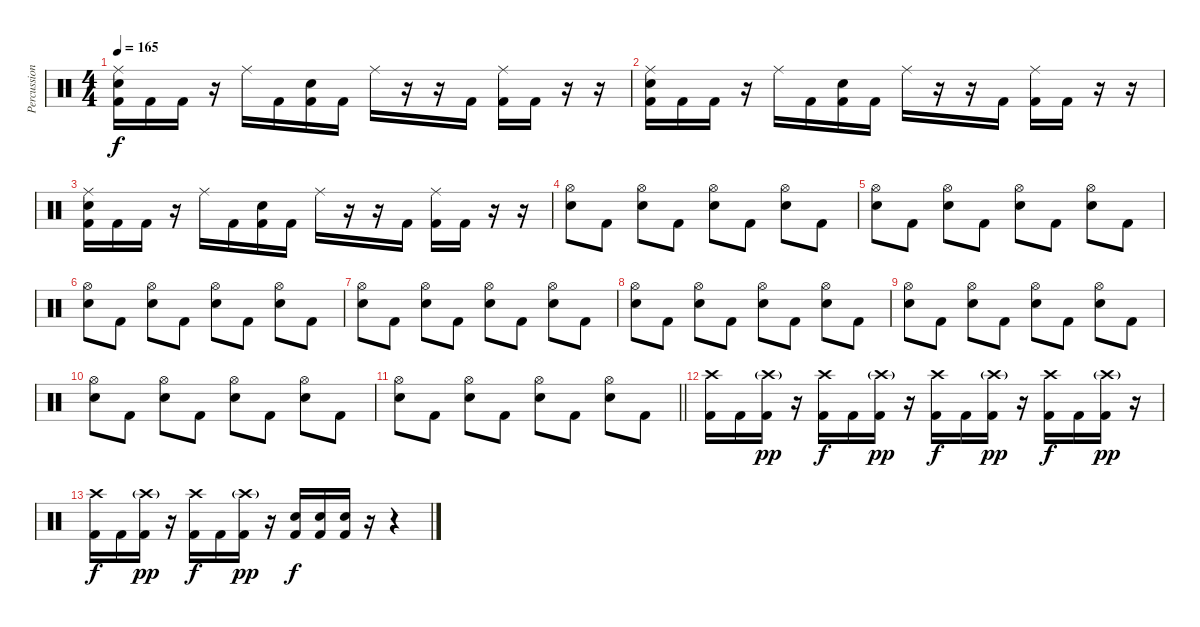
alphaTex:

\track ("Percussion" "Percussion") {instrument percussion}
\staff {score}
\articulation defaults
\ts (4 4)
\tempo 165
\clef neutral
\ks c
("Ride (middle)" "Electric Snare (hit)" "Kick (hit) 2").16{dy f} "Kick (hit) 2".16 "Kick (hit) 2".16 r.16 "Ride (middle)".16 "Kick (hit) 2".16 ("Electric Snare (hit)" "Kick (hit) 2").16 "Kick (hit) 2".16 "Ride (middle)".16 r.16 r.16 "Kick (hit) 2".16 ("Ride (middle)" "Kick (hit) 2").16 "Kick (hit) 2".16 r.16 r.16 |
("Ride (middle)" "Electric Snare (hit)" "Kick (hit) 2").16 "Kick (hit) 2".16 "Kick (hit) 2".16 r.16 "Ride (middle)".16 "Kick (hit) 2".16 ("Electric Snare (hit)" "Kick (hit) 2").16 "Kick (hit) 2".16 "Ride (middle)".16 r.16 r.16 "Kick (hit) 2".16 ("Ride (middle)" "Kick (hit) 2").16 "Kick (hit) 2".16 r.16 r.16 |
("Ride (middle)" "Electric Snare (hit)" "Kick (hit) 2").16 "Kick (hit) 2".16 "Kick (hit) 2".16 r.16 "Ride (middle)".16 "Kick (hit) 2".16 ("Electric Snare (hit)" "Kick (hit) 2").16 "Kick (hit) 2".16 "Ride (middle)".16 r.16 r.16 "Kick (hit) 2".16 ("Ride (middle)" "Kick (hit) 2").16 "Kick (hit) 2".16 r.16 r.16 |
("Hi-Hat (open)" "Electric Snare (hit)").8 "Kick (hit) 2".8 ("Hi-Hat (open)" "Electric Snare (hit)").8 "Kick (hit) 2".8 ("Hi-Hat (open)" "Electric Snare (hit)").8 "Kick (hit) 2".8 ("Hi-Hat (open)" "Electric Snare (hit)").8 "Kick (hit) 2".8 |
("Hi-Hat (open)" "Electric Snare (hit)").8 "Kick (hit) 2".8 ("Hi-Hat (open)" "Electric Snare (hit)").8 "Kick (hit) 2".8 ("Hi-Hat (open)" "Electric Snare (hit)").8 "Kick (hit) 2".8 ("Hi-Hat (open)" "Electric Snare (hit)").8 "Kick (hit) 2".8 |
("Hi-Hat (open)" "Electric Snare (hit)").8 "Kick (hit) 2".8 ("Hi-Hat (open)" "Electric Snare (hit)").8 "Kick (hit) 2".8 ("Hi-Hat (open)" "Electric Snare (hit)").8 "Kick (hit) 2".8 ("Hi-Hat (open)" "Electric Snare (hit)").8 "Kick (hit) 2".8 |
("Hi-Hat (open)" "Electric Snare (hit)").8 "Kick (hit) 2".8 ("Hi-Hat (open)" "Electric Snare (hit)").8 "Kick (hit) 2".8 ("Hi-Hat (open)" "Electric Snare (hit)").8 "Kick (hit) 2".8 ("Hi-Hat (open)" "Electric Snare (hit)").8 "Kick (hit) 2".8 |
("Hi-Hat (open)" "Electric Snare (hit)").8 "Kick (hit) 2".8 ("Hi-Hat (open)" "Electric Snare (hit)").8 "Kick (hit) 2".8 ("Hi-Hat (open)" "Electric Snare (hit)").8 "Kick (hit) 2".8 ("Hi-Hat (open)" "Electric Snare (hit)").8 "Kick (hit) 2".8 |
("Hi-Hat (open)" "Electric Snare (hit)").8 "Kick (hit) 2".8 ("Hi-Hat (open)" "Electric Snare (hit)").8 "Kick (hit) 2".8 ("Hi-Hat (open)" "Electric Snare (hit)").8 "Kick (hit) 2".8 ("Hi-Hat (open)" "Electric Snare (hit)").8 "Kick (hit) 2".8 |
("Hi-Hat (open)" "Electric Snare (hit)").8 "Kick (hit) 2".8 ("Hi-Hat (open)" "Electric Snare (hit)").8 "Kick (hit) 2".8 ("Hi-Hat (open)" "Electric Snare (hit)").8 "Kick (hit) 2".8 ("Hi-Hat (open)" "Electric Snare (hit)").8 "Kick (hit) 2".8 |
\barLineRight lightlight
("Hi-Hat (open)" "Electric Snare (hit)").8 "Kick (hit) 2".8 ("Hi-Hat (open)" "Electric Snare (hit)").8 "Kick (hit) 2".8 ("Hi-Hat (open)" "Electric Snare (hit)").8 "Kick (hit) 2".8 ("Hi-Hat (open)" "Electric Snare (hit)").8 "Kick (hit) 2".8 |
("Crash high (hit)" "Kick (hit) 2").16 "Kick (hit) 2".16 ("Crash high (hit)"{g} "Kick (hit) 2").16{dy pp} r.16 ("Crash high (hit)" "Kick (hit) 2").16{dy f} "Kick (hit) 2".16 ("Crash high (hit)"{g} "Kick (hit) 2").16{dy pp} r.16 ("Crash high (hit)" "Kick (hit) 2").16{dy f} "Kick (hit) 2".16 ("Crash high (hit)"{g} "Kick (hit) 2").16{dy pp} r.16 ("Crash high (hit)" "Kick (hit) 2").16{dy f} "Kick (hit) 2".16 ("Crash high (hit)"{g} "Kick (hit) 2").16{dy pp} r.16 |
("Crash high (hit)" "Kick (hit) 2").16{dy f} "Kick (hit) 2".16 ("Crash high (hit)"{g} "Kick (hit) 2").16{dy pp} r.16 ("Crash high (hit)" "Kick (hit) 2").16{dy f} "Kick (hit) 2".16 ("Crash high (hit)"{g} "Kick (hit) 2").16{dy pp} r.16 ("Electric Snare (hit)" "Kick (hit) 2").16{dy f} ("Electric Snare (hit)" "Kick (hit) 2").16 ("Electric Snare (hit)" "Kick (hit) 2").16 r.16 r.4
